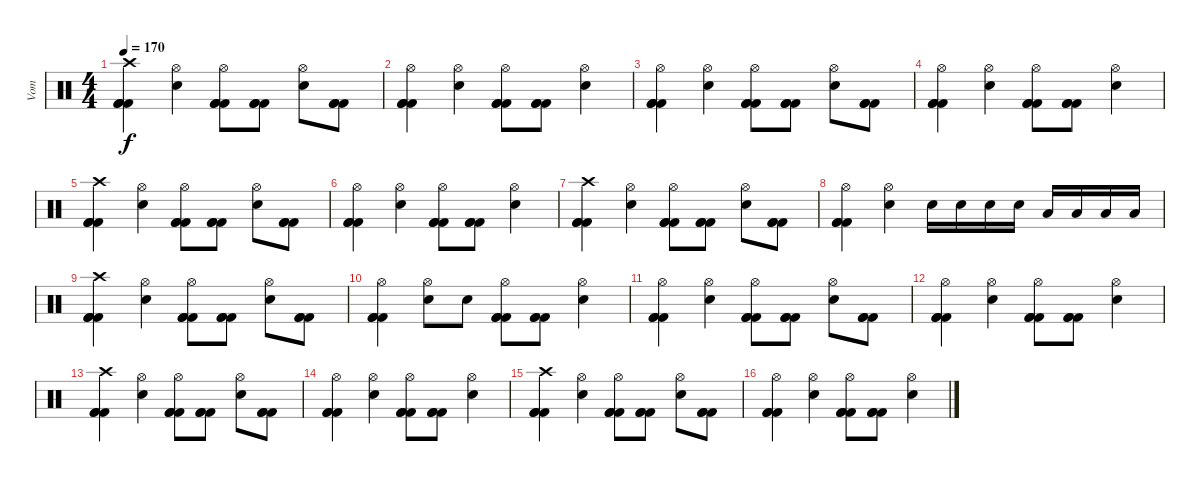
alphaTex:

\track ("Vom" "Vom") {instrument percussion}
\staff {score}
\articulation defaults
\ts (4 4)
\tempo 170
\clef neutral
\ks c
("Crash high (hit)" "Kick (hit) 2" "Kick (hit) 2" "Kick (hit) 2").4{dy f} ("Hi-Hat (open)" "Snare (hit) 2").4 ("Hi-Hat (open)" "Kick (hit) 2" "Kick (hit) 2" "Kick (hit) 2").8 ("Kick (hit) 2" "Kick (hit) 2" "Kick (hit) 2").8 ("Hi-Hat (open)" "Snare (hit) 2").8 ("Kick (hit) 2" "Kick (hit) 2" "Kick (hit) 2").8 |
("Hi-Hat (open)" "Kick (hit) 2" "Kick (hit) 2" "Kick (hit) 2").4 ("Hi-Hat (open)" "Snare (hit) 2").4 ("Hi-Hat (open)" "Kick (hit) 2" "Kick (hit) 2" "Kick (hit) 2").8 ("Kick (hit) 2" "Kick (hit) 2" "Kick (hit) 2").8 ("Hi-Hat (open)" "Snare (hit) 2").4 |
("Hi-Hat (open)" "Kick (hit) 2" "Kick (hit) 2" "Kick (hit) 2").4 ("Hi-Hat (open)" "Snare (hit) 2").4 ("Hi-Hat (open)" "Kick (hit) 2" "Kick (hit) 2" "Kick (hit) 2").8 ("Kick (hit) 2" "Kick (hit) 2" "Kick (hit) 2").8 ("Hi-Hat (open)" "Snare (hit) 2").8 ("Kick (hit) 2" "Kick (hit) 2" "Kick (hit) 2").8 |
("Hi-Hat (open)" "Kick (hit) 2" "Kick (hit) 2" "Kick (hit) 2").4 ("Hi-Hat (open)" "Snare (hit) 2").4 ("Hi-Hat (open)" "Kick (hit) 2" "Kick (hit) 2" "Kick (hit) 2").8 ("Kick (hit) 2" "Kick (hit) 2" "Kick (hit) 2").8 ("Hi-Hat (open)" "Snare (hit) 2").4 |
("Crash high (hit)" "Kick (hit) 2" "Kick (hit) 2" "Kick (hit) 2").4 ("Hi-Hat (open)" "Snare (hit) 2").4 ("Hi-Hat (open)" "Kick (hit) 2" "Kick (hit) 2" "Kick (hit) 2").8 ("Kick (hit) 2" "Kick (hit) 2" "Kick (hit) 2").8 ("Hi-Hat (open)" "Snare (hit) 2").8 ("Kick (hit) 2" "Kick (hit) 2" "Kick (hit) 2").8 |
("Hi-Hat (open)" "Kick (hit) 2" "Kick (hit) 2" "Kick (hit) 2").4 ("Hi-Hat (open)" "Snare (hit) 2").4 ("Hi-Hat (open)" "Kick (hit) 2" "Kick (hit) 2" "Kick (hit) 2").8 ("Kick (hit) 2" "Kick (hit) 2" "Kick (hit) 2").8 ("Hi-Hat (open)" "Snare (hit) 2").4 |
("Crash high (hit)" "Kick (hit) 2" "Kick (hit) 2" "Kick (hit) 2").4 ("Hi-Hat (open)" "Snare (hit) 2").4 ("Hi-Hat (open)" "Kick (hit) 2" "Kick (hit) 2" "Kick (hit) 2").8 ("Kick (hit) 2" "Kick (hit) 2" "Kick (hit) 2").8 ("Hi-Hat (open)" "Snare (hit) 2").8 ("Kick (hit) 2" "Kick (hit) 2" "Kick (hit) 2").8 |
("Hi-Hat (open)" "Kick (hit) 2" "Kick (hit) 2" "Kick (hit) 2").4 ("Hi-Hat (open)" "Snare (hit) 2").4 "Snare (hit) 2".16 "Snare (hit) 2".16 "Snare (hit) 2".16 "Snare (hit) 2".16 "Low Tom (hit)".16 "Low Tom (hit)".16 "Low Floor Tom (hit)".16 "Low Floor Tom (hit)".16 |
("Crash high (hit)" "Kick (hit) 2" "Kick (hit) 2" "Kick (hit) 2").4 ("Hi-Hat (open)" "Snare (hit) 2").4 ("Hi-Hat (open)" "Kick (hit) 2" "Kick (hit) 2" "Kick (hit) 2").8 ("Kick (hit) 2" "Kick (hit) 2" "Kick (hit) 2").8 ("Hi-Hat (open)" "Snare (hit) 2").8 ("Kick (hit) 2" "Kick (hit) 2" "Kick (hit) 2").8 |
("Hi-Hat (open)" "Kick (hit) 2" "Kick (hit) 2" "Kick (hit) 2").4 ("Hi-Hat (open)" "Snare (hit) 2").8 "Snare (hit) 2".8 ("Hi-Hat (open)" "Kick (hit) 2" "Kick (hit) 2" "Kick (hit) 2").8 ("Kick (hit) 2" "Kick (hit) 2" "Kick (hit) 2").8 ("Hi-Hat (open)" "Snare (hit) 2").4 |
("Hi-Hat (open)" "Kick (hit) 2" "Kick (hit) 2" "Kick (hit) 2").4 ("Hi-Hat (open)" "Snare (hit) 2").4 ("Hi-Hat (open)" "Kick (hit) 2" "Kick (hit) 2" "Kick (hit) 2").8 ("Kick (hit) 2" "Kick (hit) 2" "Kick (hit) 2").8 ("Hi-Hat (open)" "Snare (hit) 2").8 ("Kick (hit) 2" "Kick (hit) 2" "Kick (hit) 2").8 |
("Hi-Hat (open)" "Kick (hit) 2" "Kick (hit) 2" "Kick (hit) 2").4 ("Hi-Hat (open)" "Snare (hit) 2").4 ("Hi-Hat (open)" "Kick (hit) 2" "Kick (hit) 2" "Kick (hit) 2").8 ("Kick (hit) 2" "Kick (hit) 2" "Kick (hit) 2").8 ("Hi-Hat (open)" "Snare (hit) 2").4 |
("Crash high (hit)" "Kick (hit) 2" "Kick (hit) 2" "Kick (hit) 2").4 ("Hi-Hat (open)" "Snare (hit) 2").4 ("Hi-Hat (open)" "Kick (hit) 2" "Kick (hit) 2" "Kick (hit) 2").8 ("Kick (hit) 2" "Kick (hit) 2" "Kick (hit) 2").8 ("Hi-Hat (open)" "Snare (hit) 2").8 ("Kick (hit) 2" "Kick (hit) 2" "Kick (hit) 2").8 |
("Hi-Hat (open)" "Kick (hit) 2" "Kick (hit) 2" "Kick (hit) 2").4 ("Hi-Hat (open)" "Snare (hit) 2").4 ("Hi-Hat (open)" "Kick (hit) 2" "Kick (hit) 2" "Kick (hit) 2").8 ("Kick (hit) 2" "Kick (hit) 2" "Kick (hit) 2").8 ("Hi-Hat (open)" "Snare (hit) 2").4 |
("Crash high (hit)" "Kick (hit) 2" "Kick (hit) 2" "Kick (hit) 2").4 ("Hi-Hat (open)" "Snare (hit) 2").4 ("Hi-Hat (open)" "Kick (hit) 2" "Kick (hit) 2" "Kick (hit) 2").8 ("Kick (hit) 2" "Kick (hit) 2" "Kick (hit) 2").8 ("Hi-Hat (open)" "Snare (hit) 2").8 ("Kick (hit) 2" "Kick (hit) 2" "Kick (hit) 2").8 |
("Hi-Hat (open)" "Kick (hit) 2" "Kick (hit) 2" "Kick (hit) 2").4 ("Hi-Hat (open)" "Snare (hit) 2").4 ("Hi-Hat (open)" "Kick (hit) 2" "Kick (hit) 2" "Kick (hit) 2").8 ("Kick (hit) 2" "Kick (hit) 2" "Kick (hit) 2").8 ("Hi-Hat (open)" "Snare (hit) 2").4
